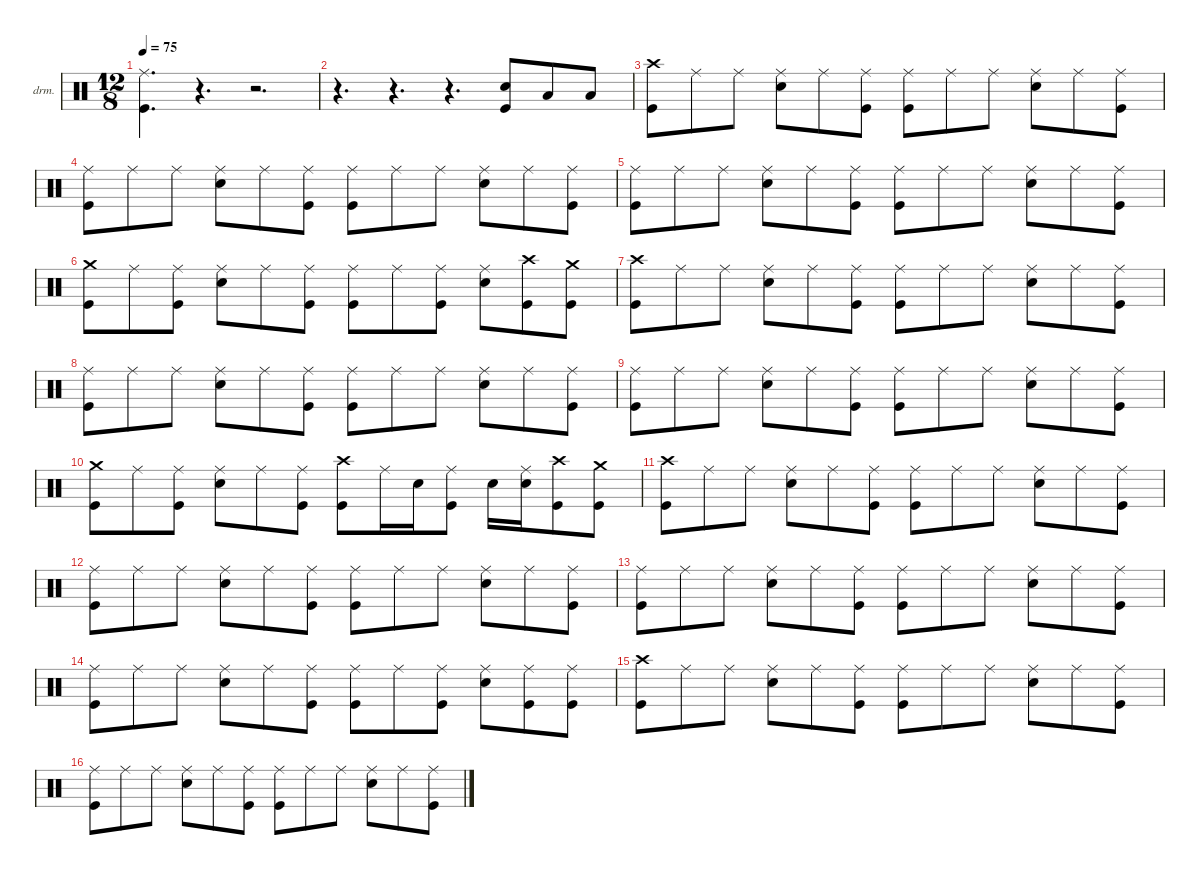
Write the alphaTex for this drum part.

\defaultSystemsLayout 4
\hideDynamics
\bracketExtendMode nobrackets
\firstSystemTrackNameOrientation horizontal
\otherSystemsTrackNameOrientation horizontal
\track ("Drums" "drm.") {instrument percussion}
\staff {score}
\articulation defaults
\ts (12 8)
\tempo 75
\clef neutral
\ks c
("Ride (middle)" "Kick (hit)").4{d dy mf beam Down} r.4{d beam Down} r.2{d beam Down} |
r.4{d beam Down} r.4{d beam Down} r.4{d beam Down} ("Snare (hit) 2" "Kick (hit)").8{beam Up} "Low Tom (hit)".8{dy f beam Up} "Low Floor Tom (hit)".8{beam Up} |
("Crash high (hit)" "Kick (hit)").8{beam Down} "Ride (middle)".8{dy p beam Down} "Ride (middle)".8{dy mp beam Down} ("Ride (middle)" "Snare (hit) 2").8{dy mf beam Down} "Ride (middle)".8{dy p beam Down} ("Ride (middle)" "Kick (hit)").8{dy mp beam Down} ("Ride (middle)" "Kick (hit)").8{beam Down} "Ride (middle)".8{dy p beam Down} "Ride (middle)".8{dy mp beam Down} ("Ride (middle)" "Snare (hit) 2").8{dy mf beam Down} "Ride (middle)".8{dy p beam Down} ("Ride (middle)" "Kick (hit)").8{dy mp beam Down} |
("Ride (middle)" "Kick (hit)").8{dy mf beam Down} "Ride (middle)".8{dy p beam Down} "Ride (middle)".8{dy mp beam Down} ("Ride (middle)" "Snare (hit) 2").8{dy mf beam Down} "Ride (middle)".8{dy p beam Down} ("Ride (middle)" "Kick (hit)").8{dy mp beam Down} ("Ride (middle)" "Kick (hit)").8{beam Down} "Ride (middle)".8{dy p beam Down} "Ride (middle)".8{dy mp beam Down} ("Ride (middle)" "Snare (hit) 2").8{dy mf beam Down} "Ride (middle)".8{dy p beam Down} ("Ride (middle)" "Kick (hit)").8{dy mp beam Down} |
("Ride (middle)" "Kick (hit)").8{dy mf beam Down} "Ride (middle)".8{dy p beam Down} "Ride (middle)".8{dy mp beam Down} ("Ride (middle)" "Snare (hit) 2").8{dy mf beam Down} "Ride (middle)".8{dy p beam Down} ("Ride (middle)" "Kick (hit)").8{dy mp beam Down} ("Ride (middle)" "Kick (hit)").8{beam Down} "Ride (middle)".8{dy p beam Down} "Ride (middle)".8{dy mp beam Down} ("Ride (middle)" "Snare (hit) 2").8{dy mf beam Down} "Ride (middle)".8{dy p beam Down} ("Ride (middle)" "Kick (hit)").8{dy mp beam Down} |
("Crash medium (hit)" "Kick (hit)").8{dy f beam Down} "Ride (middle)".8{dy p beam Down} ("Ride (middle)" "Kick (hit)").8{dy mp beam Down} ("Ride (middle)" "Snare (hit) 2").8{dy mf beam Down} "Ride (middle)".8{dy p beam Down} ("Ride (middle)" "Kick (hit)").8{dy mp beam Down} ("Ride (middle)" "Kick (hit)").8{beam Down} "Ride (middle)".8{dy p beam Down} ("Ride (middle)" "Kick (hit)").8{dy mp beam Down} ("Ride (middle)" "Snare (hit) 2").8{dy mf beam Down} ("Crash high (hit)" "Kick (hit)").8{dy f beam Down} ("Crash medium (hit)" "Kick (hit)").8{beam Down} |
("Crash high (hit)" "Kick (hit)").8{beam Down} "Ride (middle)".8{dy p beam Down} "Ride (middle)".8{dy mp beam Down} ("Ride (middle)" "Snare (hit) 2").8{dy mf beam Down} "Ride (middle)".8{dy p beam Down} ("Ride (middle)" "Kick (hit)").8{dy mp beam Down} ("Ride (middle)" "Kick (hit)").8{beam Down} "Ride (middle)".8{dy p beam Down} "Ride (middle)".8{dy mp beam Down} ("Ride (middle)" "Snare (hit) 2").8{dy mf beam Down} "Ride (middle)".8{dy p beam Down} ("Ride (middle)" "Kick (hit)").8{dy mp beam Down} |
("Ride (middle)" "Kick (hit)").8{dy mf beam Down} "Ride (middle)".8{dy p beam Down} "Ride (middle)".8{dy mp beam Down} ("Ride (middle)" "Snare (hit) 2").8{dy mf beam Down} "Ride (middle)".8{dy p beam Down} ("Ride (middle)" "Kick (hit)").8{dy mp beam Down} ("Ride (middle)" "Kick (hit)").8{beam Down} "Ride (middle)".8{dy p beam Down} "Ride (middle)".8{dy mp beam Down} ("Ride (middle)" "Snare (hit) 2").8{dy mf beam Down} "Ride (middle)".8{dy p beam Down} ("Ride (middle)" "Kick (hit)").8{dy mp beam Down} |
("Ride (middle)" "Kick (hit)").8{dy mf beam Down} "Ride (middle)".8{dy p beam Down} "Ride (middle)".8{dy mp beam Down} ("Ride (middle)" "Snare (hit) 2").8{dy mf beam Down} "Ride (middle)".8{dy p beam Down} ("Ride (middle)" "Kick (hit)").8{dy mp beam Down} ("Ride (middle)" "Kick (hit)").8{beam Down} "Ride (middle)".8{dy p beam Down} "Ride (middle)".8{dy mp beam Down} ("Ride (middle)" "Snare (hit) 2").8{dy mf beam Down} "Ride (middle)".8{dy p beam Down} ("Ride (middle)" "Kick (hit)").8{dy mp beam Down} |
("Crash medium (hit)" "Kick (hit)").8{dy f beam Down} "Ride (middle)".8{dy p beam Down} ("Ride (middle)" "Kick (hit)").8{dy mp beam Down} ("Ride (middle)" "Snare (hit) 2").8{dy mf beam Down} "Ride (middle)".8{dy p beam Down} ("Ride (middle)" "Kick (hit)").8{dy mp beam Down} ("Crash high (hit)" "Kick (hit)").8{dy f beam Down} "Ride (middle)".16{dy p beam Down} "Snare (hit) 2".16{dy f beam Down} ("Ride (middle)" "Kick (hit)").8{dy mp beam Down} "Snare (hit) 2".16{dy mf beam Down} ("Ride (middle)" "Snare (hit) 2").16{beam Down} ("Crash high (hit)" "Kick (hit)").8{dy f beam Down} ("Crash medium (hit)" "Kick (hit)").8{beam Down} |
("Crash high (hit)" "Kick (hit)").8{beam Down} "Ride (middle)".8{dy p beam Down} "Ride (middle)".8{dy mp beam Down} ("Ride (middle)" "Snare (hit) 2").8{dy mf beam Down} "Ride (middle)".8{dy p beam Down} ("Ride (middle)" "Kick (hit)").8{dy mp beam Down} ("Ride (middle)" "Kick (hit)").8{beam Down} "Ride (middle)".8{dy p beam Down} "Ride (middle)".8{dy mp beam Down} ("Ride (middle)" "Snare (hit) 2").8{dy mf beam Down} "Ride (middle)".8{dy p beam Down} ("Ride (middle)" "Kick (hit)").8{dy mp beam Down} |
("Ride (middle)" "Kick (hit)").8{dy mf beam Down} "Ride (middle)".8{dy p beam Down} "Ride (middle)".8{dy mp beam Down} ("Ride (middle)" "Snare (hit) 2").8{dy mf beam Down} "Ride (middle)".8{dy p beam Down} ("Ride (middle)" "Kick (hit)").8{dy mp beam Down} ("Ride (middle)" "Kick (hit)").8{beam Down} "Ride (middle)".8{dy p beam Down} "Ride (middle)".8{dy mp beam Down} ("Ride (middle)" "Snare (hit) 2").8{dy mf beam Down} "Ride (middle)".8{dy p beam Down} ("Ride (middle)" "Kick (hit)").8{dy mp beam Down} |
("Ride (middle)" "Kick (hit)").8{dy mf beam Down} "Ride (middle)".8{dy p beam Down} "Ride (middle)".8{dy mp beam Down} ("Ride (middle)" "Snare (hit) 2").8{dy mf beam Down} "Ride (middle)".8{dy p beam Down} ("Ride (middle)" "Kick (hit)").8{dy mp beam Down} ("Ride (middle)" "Kick (hit)").8{beam Down} "Ride (middle)".8{dy p beam Down} "Ride (middle)".8{dy mp beam Down} ("Ride (middle)" "Snare (hit) 2").8{dy mf beam Down} "Ride (middle)".8{dy p beam Down} ("Ride (middle)" "Kick (hit)").8{dy mp beam Down} |
("Ride (middle)" "Kick (hit)").8{dy mf beam Down} "Ride (middle)".8{dy p beam Down} "Ride (middle)".8{dy mp beam Down} ("Ride (middle)" "Snare (hit) 2").8{dy mf beam Down} "Ride (middle)".8{dy p beam Down} ("Ride (middle)" "Kick (hit)").8{dy mp beam Down} ("Ride (middle)" "Kick (hit)").8{beam Down} "Ride (middle)".8{dy p beam Down} ("Ride (middle)" "Kick (hit)").8{dy mp beam Down} ("Ride (middle)" "Snare (hit) 2").8{dy mf beam Down} ("Ride (middle)" "Kick (hit)").8{dy p beam Down} ("Ride (middle)" "Kick (hit)").8{dy mp beam Down} |
("Crash high (hit)" "Kick (hit)").8{dy f beam Down} "Ride (middle)".8{dy p beam Down} "Ride (middle)".8{dy mp beam Down} ("Ride (middle)" "Snare (hit) 2").8{dy mf beam Down} "Ride (middle)".8{dy p beam Down} ("Ride (middle)" "Kick (hit)").8{dy mp beam Down} ("Ride (middle)" "Kick (hit)").8{beam Down} "Ride (middle)".8{dy p beam Down} "Ride (middle)".8{dy mp beam Down} ("Ride (middle)" "Snare (hit) 2").8{dy mf beam Down} "Ride (middle)".8{dy p beam Down} ("Ride (middle)" "Kick (hit)").8{dy mp beam Down} |
("Ride (middle)" "Kick (hit)").8{dy mf beam Down} "Ride (middle)".8{dy p beam Down} "Ride (middle)".8{dy mp beam Down} ("Ride (middle)" "Snare (hit) 2").8{dy mf beam Down} "Ride (middle)".8{dy p beam Down} ("Ride (middle)" "Kick (hit)").8{dy mp beam Down} ("Ride (middle)" "Kick (hit)").8{beam Down} "Ride (middle)".8{dy p beam Down} "Ride (middle)".8{dy mp beam Down} ("Ride (middle)" "Snare (hit) 2").8{dy mf beam Down} "Ride (middle)".8{dy p beam Down} ("Ride (middle)" "Kick (hit)").8{dy mp beam Down}
